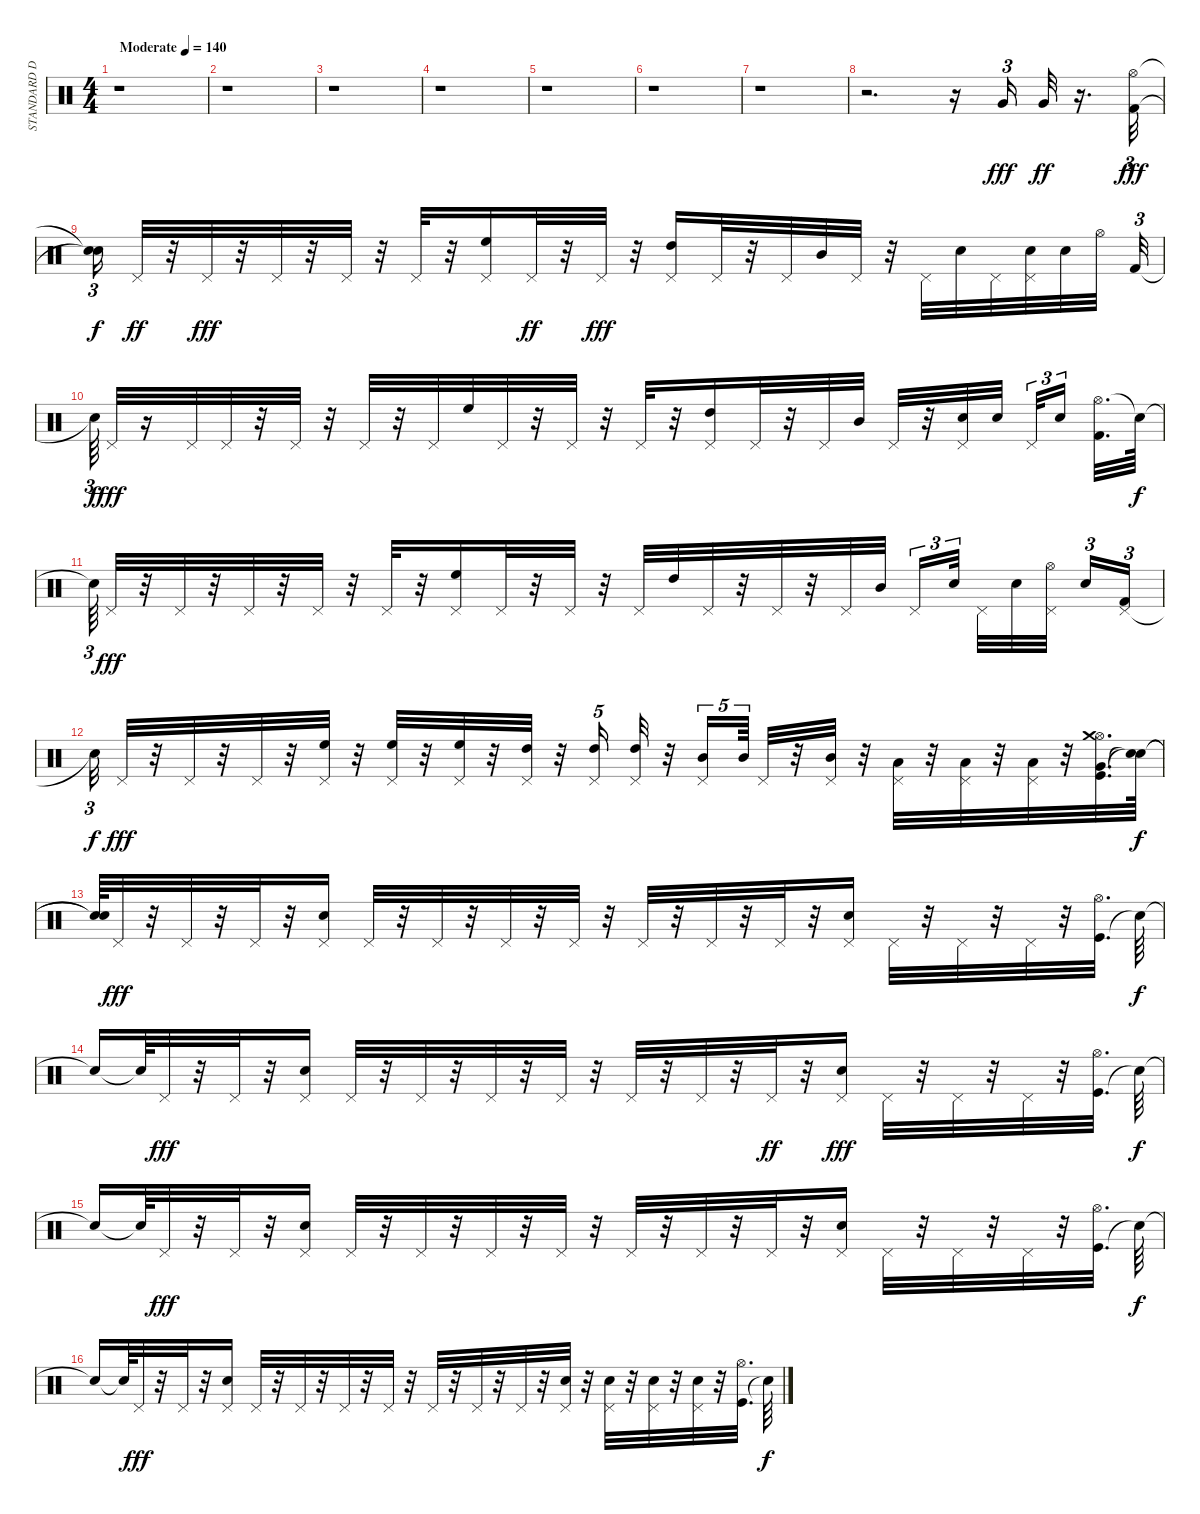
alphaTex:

\track ("STANDARD DRUMS" "STANDARD D") {instrument percussion}
\staff {score}
\articulation defaults
\ts (4 4)
\tempo (140 "Moderate")
\clef neutral
\ks c
r.1{dy fff} |
r.1 |
r.1 |
r.1 |
r.1 |
r.1 |
r.1 |
r.2{d} r.16 "Very Low Tom (hit)".16{tu (3 2)} "Very Low Tom (hit)".32{dy ff} r.16{d} ("Hi-Hat (open)" "Kick (hit) 2").32{tu (3 2) dy fff} |
("Snare (hit)"{t} "Snare (hit)"{t}).16{tu (3 2) dy f} "Pedal Hi-Hat (hit)".32{dy ff} r.32 "Pedal Hi-Hat (hit)".32{dy fff} r.32 "Pedal Hi-Hat (hit)".32 r.32 "Pedal Hi-Hat (hit)".32 r.32 "Pedal Hi-Hat (hit)".32 r.32 ("Pedal Hi-Hat (hit)" "High Floor Tom (hit)").16 "Pedal Hi-Hat (hit)".32{dy ff} r.32 "Pedal Hi-Hat (hit)".32{dy fff} r.32 ("Pedal Hi-Hat (hit)" "High Tom (hit)").16 "Pedal Hi-Hat (hit)".32 r.32 "Pedal Hi-Hat (hit)".32 "Mid Tom (hit)".32 "Pedal Hi-Hat (hit)".32 r.32 "Pedal Hi-Hat (hit)".32 "Snare (hit) 2".32 "Pedal Hi-Hat (hit)".32 ("Snare (hit) 2" "Pedal Hi-Hat (hit)").32 "Snare (hit) 2".32 "Hi-Hat (open)".32{beam splitsecondary} "Kick (hit) 2".32{tu (3 2)} |
"Snare (hit)"{t}.64{tu (3 2) dy f} "Pedal Hi-Hat (hit)".32{dy fff} r.16 "Pedal Hi-Hat (hit)".32 "Pedal Hi-Hat (hit)".32 r.32 "Pedal Hi-Hat (hit)".32 r.32 "Pedal Hi-Hat (hit)".32 r.32 "Pedal Hi-Hat (hit)".32 "High Floor Tom (hit)".32 "Pedal Hi-Hat (hit)".32 r.32 "Pedal Hi-Hat (hit)".32 r.32 "Pedal Hi-Hat (hit)".32 r.32 ("High Tom (hit)" "Pedal Hi-Hat (hit)").16 "Pedal Hi-Hat (hit)".32 r.32 "Pedal Hi-Hat (hit)".32 "Mid Tom (hit)".32 "Pedal Hi-Hat (hit)".32 r.32 ("Snare (hit) 2" "Pedal Hi-Hat (hit)").32 "Snare (hit) 2".32{beam splitsecondary} "Pedal Hi-Hat (hit)".32{tu (3 2)} "Snare (hit) 2".16{tu (3 2) beam splitsecondary} ("Hi-Hat (open)" "Kick (hit) 2").32{d} "Snare (hit)"{t}.64{dy f} |
"Snare (hit)"{t}.64{tu (3 2)} "Pedal Hi-Hat (hit)".32{dy fff} r.32 "Pedal Hi-Hat (hit)".32 r.32 "Pedal Hi-Hat (hit)".32 r.32 "Pedal Hi-Hat (hit)".32 r.32 "Pedal Hi-Hat (hit)".32 r.32 ("Pedal Hi-Hat (hit)" "High Floor Tom (hit)").16 "Pedal Hi-Hat (hit)".32 r.32 "Pedal Hi-Hat (hit)".32 r.32 "Pedal Hi-Hat (hit)".32 "High Tom (hit)".32 "Pedal Hi-Hat (hit)".32 r.32 "Pedal Hi-Hat (hit)".32 r.32 "Pedal Hi-Hat (hit)".32 "Mid Tom (hit)".32 "Pedal Hi-Hat (hit)".16{tu (3 2)} "Snare (hit) 2".32{tu (3 2) beam splitsecondary} "Pedal Hi-Hat (hit)".32 "Snare (hit) 2".32 ("Pedal Hi-Hat (hit)" "Hi-Hat (open)").32{beam splitsecondary} "Snare (hit) 2".16{tu (3 2)} ("Pedal Hi-Hat (hit)" "Kick (hit) 2").16{tu (3 2)} |
"Snare (hit)"{t}.32{tu (3 2) dy f} "Pedal Hi-Hat (hit)".32{dy fff} r.32 "Pedal Hi-Hat (hit)".32 r.32 "Pedal Hi-Hat (hit)".32 r.32 ("Pedal Hi-Hat (hit)" "High Floor Tom (hit)").32 r.32 ("High Floor Tom (hit)" "Pedal Hi-Hat (hit)").32 r.32 ("High Floor Tom (hit)" "Pedal Hi-Hat (hit)").32 r.32 ("High Tom (hit)" "Pedal Hi-Hat (hit)").32 r.32 ("High Tom (hit)" "Pedal Hi-Hat (hit)").16{tu (5 4)} ("High Tom (hit)" "Pedal Hi-Hat (hit)").32 r.32 ("Mid Tom (hit)" "Pedal Hi-Hat (hit)").16{tu (5 4)} "Mid Tom (hit)".64{tu (5 4) beam splitsecondary} "Pedal Hi-Hat (hit)".32 r.32 ("Mid Tom (hit)" "Pedal Hi-Hat (hit)").32 r.32 ("Low Tom (hit)" "Pedal Hi-Hat (hit)").32 r.32 ("Low Tom (hit)" "Pedal Hi-Hat (hit)").32 r.32 ("Low Tom (hit)" "Pedal Hi-Hat (hit)").32 r.32 ("Very Low Tom (hit)" "Kick (hit)" "Hi-Hat (open)" "Crash medium (hit)").32{d} ("Snare (hit)"{t} "Snare (hit)"{t}).64{dy f} |
("Snare (hit)"{t} "Snare (hit)"{t}).64 "Pedal Hi-Hat (hit)".32{dy fff} r.32 "Pedal Hi-Hat (hit)".32 r.32 "Pedal Hi-Hat (hit)".32 r.32 ("Snare (hit) 2" "Pedal Hi-Hat (hit)").16 "Pedal Hi-Hat (hit)".32 r.32 "Pedal Hi-Hat (hit)".32 r.32 "Pedal Hi-Hat (hit)".32 r.32 "Pedal Hi-Hat (hit)".32 r.32 "Pedal Hi-Hat (hit)".32 r.32 "Pedal Hi-Hat (hit)".32 r.32 "Pedal Hi-Hat (hit)".32 r.32 ("Snare (hit) 2" "Pedal Hi-Hat (hit)").16 "Pedal Hi-Hat (hit)".32 r.32 "Pedal Hi-Hat (hit)".32 r.32 "Pedal Hi-Hat (hit)".32 r.32 ("Kick (hit)" "Hi-Hat (open)").32{d} "Snare (hit)"{t}.64{dy f} |
"Snare (hit)"{t}.16 "Snare (hit)"{t}.64 "Pedal Hi-Hat (hit)".32{dy fff} r.32 "Pedal Hi-Hat (hit)".32 r.32 ("Snare (hit) 2" "Pedal Hi-Hat (hit)").16 "Pedal Hi-Hat (hit)".32 r.32 "Pedal Hi-Hat (hit)".32 r.32 "Pedal Hi-Hat (hit)".32 r.32 "Pedal Hi-Hat (hit)".32 r.32 "Pedal Hi-Hat (hit)".32 r.32 "Pedal Hi-Hat (hit)".32 r.32 "Pedal Hi-Hat (hit)".32{dy ff} r.32 ("Snare (hit) 2" "Pedal Hi-Hat (hit)").16{dy fff} "Pedal Hi-Hat (hit)".32 r.32 "Pedal Hi-Hat (hit)".32 r.32 "Pedal Hi-Hat (hit)".32 r.32 ("Kick (hit)" "Hi-Hat (open)").32{d} "Snare (hit)"{t}.64{dy f} |
"Snare (hit)"{t}.16 "Snare (hit)"{t}.64 "Pedal Hi-Hat (hit)".32{dy fff} r.32 "Pedal Hi-Hat (hit)".32 r.32 ("Snare (hit) 2" "Pedal Hi-Hat (hit)").16 "Pedal Hi-Hat (hit)".32 r.32 "Pedal Hi-Hat (hit)".32 r.32 "Pedal Hi-Hat (hit)".32 r.32 "Pedal Hi-Hat (hit)".32 r.32 "Pedal Hi-Hat (hit)".32 r.32 "Pedal Hi-Hat (hit)".32 r.32 "Pedal Hi-Hat (hit)".32 r.32 ("Snare (hit) 2" "Pedal Hi-Hat (hit)").16 "Pedal Hi-Hat (hit)".32 r.32 "Pedal Hi-Hat (hit)".32 r.32 "Pedal Hi-Hat (hit)".32 r.32 ("Kick (hit)" "Hi-Hat (open)").32{d} "Snare (hit)"{t}.64{dy f} |
"Snare (hit)"{t}.16 "Snare (hit)"{t}.64 "Pedal Hi-Hat (hit)".32{dy fff} r.32 "Pedal Hi-Hat (hit)".32 r.32 ("Snare (hit) 2" "Pedal Hi-Hat (hit)").16 "Pedal Hi-Hat (hit)".32 r.32 "Pedal Hi-Hat (hit)".32 r.32 "Pedal Hi-Hat (hit)".32 r.32 "Pedal Hi-Hat (hit)".32 r.32 "Pedal Hi-Hat (hit)".32 r.32 "Pedal Hi-Hat (hit)".32 r.32 "Pedal Hi-Hat (hit)".32 r.32 ("Snare (hit) 2" "Pedal Hi-Hat (hit)").32 r.32 ("Snare (hit) 2" "Pedal Hi-Hat (hit)").32 r.32 ("Snare (hit) 2" "Pedal Hi-Hat (hit)").32 r.32 ("Snare (hit) 2" "Pedal Hi-Hat (hit)").32 r.32 ("Kick (hit)" "Hi-Hat (open)").32{d} "Snare (hit)"{t}.64{dy f}
